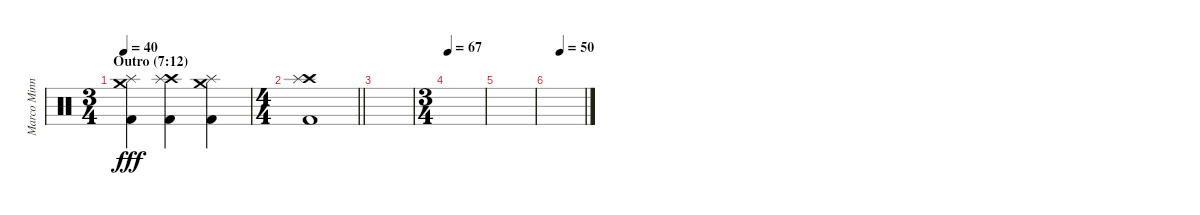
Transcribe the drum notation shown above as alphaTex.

\track ("Marco Minnemann" "Marco Minn") {instrument percussion}
\staff {score}
\articulation defaults
\ts (3 4)
\section ("" "Outro (7:12)")
\tempo 40
\clef neutral
\ks c
("Crash medium (hit)" "Splash (hit)" "Kick (hit) 2").4{dy fff} ("Crash high (hit)" "Splash (hit)" "Kick (hit) 2").4 ("Crash medium (hit)" "Splash (hit)" "Kick (hit) 2").4 |
\ts (4 4)
\barLineRight lightlight
("Crash high (hit)" "Splash (hit)" "Kick (hit) 2").1 |
|
\ts (3 4)
\tempo 67
|
|
\tempo (50 0.3333333333333333)
